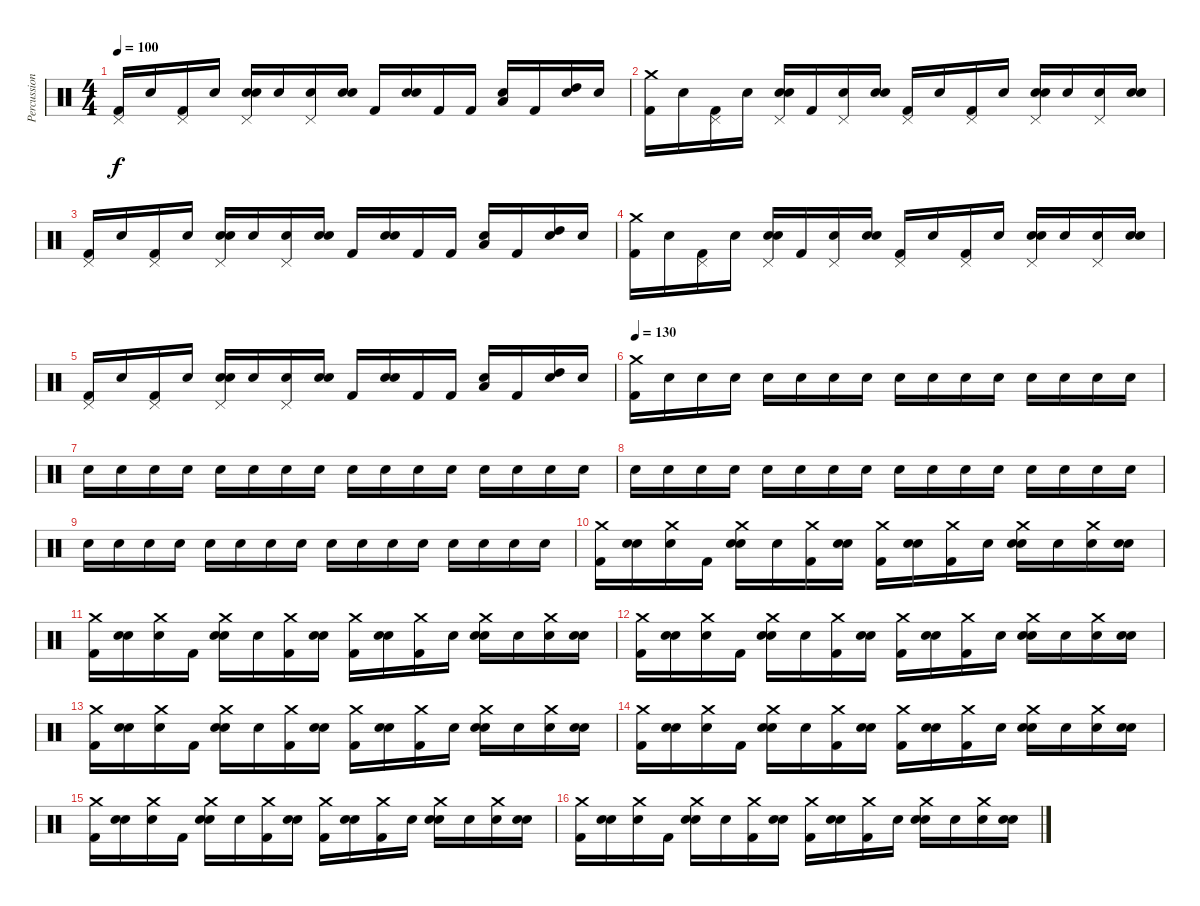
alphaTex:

\track ("Percussion" "Percussion") {instrument percussion}
\staff {score}
\articulation defaults
\ts (4 4)
\tempo 100
\clef neutral
\ks c
("Pedal Hi-Hat (hit)" "Kick (hit) 2").16{dy f} "Snare (hit)".16 ("Pedal Hi-Hat (hit)" "Kick (hit) 2").16 "Snare (hit)".16 ("Pedal Hi-Hat (hit)" "Electric Snare (hit)" "Snare (hit)").16 "Snare (hit)".16 ("Pedal Hi-Hat (hit)" "Snare (hit)").16 ("Electric Snare (hit)" "Snare (hit)").16 "Kick (hit) 2".16 ("Electric Snare (hit)" "Snare (hit)").16 "Kick (hit) 2".16 "Kick (hit) 2".16 ("Low Tom (hit)" "Snare (hit)").16 "Kick (hit) 2".16 ("High Tom (hit)" "Snare (hit)").16 "Snare (hit)".16 |
("Crash medium (hit)" "Kick (hit) 2").16 "Snare (hit)".16 ("Pedal Hi-Hat (hit)" "Kick (hit) 2").16 "Snare (hit)".16 ("Pedal Hi-Hat (hit)" "Electric Snare (hit)" "Snare (hit)").16 "Kick (hit) 2".16 ("Pedal Hi-Hat (hit)" "Snare (hit)").16 ("Electric Snare (hit)" "Snare (hit)").16 ("Pedal Hi-Hat (hit)" "Kick (hit) 2").16 "Snare (hit)".16 ("Pedal Hi-Hat (hit)" "Kick (hit) 2").16 "Snare (hit)".16 ("Pedal Hi-Hat (hit)" "Electric Snare (hit)" "Snare (hit)").16 "Snare (hit)".16 ("Pedal Hi-Hat (hit)" "Snare (hit)").16 ("Electric Snare (hit)" "Snare (hit)").16 |
("Pedal Hi-Hat (hit)" "Kick (hit) 2").16 "Snare (hit)".16 ("Pedal Hi-Hat (hit)" "Kick (hit) 2").16 "Snare (hit)".16 ("Pedal Hi-Hat (hit)" "Electric Snare (hit)" "Snare (hit)").16 "Snare (hit)".16 ("Pedal Hi-Hat (hit)" "Snare (hit)").16 ("Electric Snare (hit)" "Snare (hit)").16 "Kick (hit) 2".16 ("Electric Snare (hit)" "Snare (hit)").16 "Kick (hit) 2".16 "Kick (hit) 2".16 ("Low Tom (hit)" "Snare (hit)").16 "Kick (hit) 2".16 ("High Tom (hit)" "Snare (hit)").16 "Snare (hit)".16 |
("Crash medium (hit)" "Kick (hit) 2").16 "Snare (hit)".16 ("Pedal Hi-Hat (hit)" "Kick (hit) 2").16 "Snare (hit)".16 ("Pedal Hi-Hat (hit)" "Electric Snare (hit)" "Snare (hit)").16 "Kick (hit) 2".16 ("Pedal Hi-Hat (hit)" "Snare (hit)").16 ("Electric Snare (hit)" "Snare (hit)").16 ("Pedal Hi-Hat (hit)" "Kick (hit) 2").16 "Snare (hit)".16 ("Pedal Hi-Hat (hit)" "Kick (hit) 2").16 "Snare (hit)".16 ("Pedal Hi-Hat (hit)" "Electric Snare (hit)" "Snare (hit)").16 "Snare (hit)".16 ("Pedal Hi-Hat (hit)" "Snare (hit)").16 ("Electric Snare (hit)" "Snare (hit)").16 |
("Pedal Hi-Hat (hit)" "Kick (hit) 2").16 "Snare (hit)".16 ("Pedal Hi-Hat (hit)" "Kick (hit) 2").16 "Snare (hit)".16 ("Pedal Hi-Hat (hit)" "Electric Snare (hit)" "Snare (hit)").16 "Snare (hit)".16 ("Pedal Hi-Hat (hit)" "Snare (hit)").16 ("Electric Snare (hit)" "Snare (hit)").16 "Kick (hit) 2".16 ("Electric Snare (hit)" "Snare (hit)").16 "Kick (hit) 2".16 "Kick (hit) 2".16 ("Low Tom (hit)" "Snare (hit)").16 "Kick (hit) 2".16 ("High Tom (hit)" "Snare (hit)").16 "Snare (hit)".16 |
\tempo 130
("Crash medium (hit)" "Kick (hit) 2").16 "Snare (hit)".16 "Snare (hit)".16 "Snare (hit)".16 "Snare (hit)".16 "Snare (hit)".16 "Snare (hit)".16 "Snare (hit)".16 "Snare (hit)".16 "Snare (hit)".16 "Snare (hit)".16 "Snare (hit)".16 "Snare (hit)".16 "Snare (hit)".16 "Snare (hit)".16 "Snare (hit)".16 |
"Snare (hit)".16 "Snare (hit)".16 "Snare (hit)".16 "Snare (hit)".16 "Snare (hit)".16 "Snare (hit)".16 "Snare (hit)".16 "Snare (hit)".16 "Snare (hit)".16 "Snare (hit)".16 "Snare (hit)".16 "Snare (hit)".16 "Snare (hit)".16 "Snare (hit)".16 "Snare (hit)".16 "Snare (hit)".16 |
"Snare (hit)".16 "Snare (hit)".16 "Snare (hit)".16 "Snare (hit)".16 "Snare (hit)".16 "Snare (hit)".16 "Snare (hit)".16 "Snare (hit)".16 "Snare (hit)".16 "Snare (hit)".16 "Snare (hit)".16 "Snare (hit)".16 "Snare (hit)".16 "Snare (hit)".16 "Snare (hit)".16 "Snare (hit)".16 |
"Snare (hit)".16 "Snare (hit)".16 "Snare (hit)".16 "Snare (hit)".16 "Snare (hit)".16 "Snare (hit)".16 "Snare (hit)".16 "Snare (hit)".16 "Snare (hit)".16 "Snare (hit)".16 "Snare (hit)".16 "Snare (hit)".16 "Snare (hit)".16 "Snare (hit)".16 "Snare (hit)".16 "Snare (hit)".16 |
("Crash medium (hit)" "Kick (hit) 2").16 ("Electric Snare (hit)" "Snare (hit)").16 ("Crash medium (hit)" "Snare (hit)").16 "Kick (hit) 2".16 ("Electric Snare (hit)" "Crash medium (hit)" "Snare (hit)").16 "Snare (hit)".16 ("Crash medium (hit)" "Kick (hit) 2").16 ("Electric Snare (hit)" "Snare (hit)").16 ("Crash medium (hit)" "Kick (hit) 2").16 ("Electric Snare (hit)" "Snare (hit)").16 ("Crash medium (hit)" "Kick (hit) 2").16 "Snare (hit)".16 ("Electric Snare (hit)" "Crash medium (hit)" "Snare (hit)").16 "Snare (hit)".16 ("Crash medium (hit)" "Snare (hit)").16 ("Electric Snare (hit)" "Snare (hit)").16 |
("Crash medium (hit)" "Kick (hit) 2").16 ("Electric Snare (hit)" "Snare (hit)").16 ("Crash medium (hit)" "Snare (hit)").16 "Kick (hit) 2".16 ("Electric Snare (hit)" "Crash medium (hit)" "Snare (hit)").16 "Snare (hit)".16 ("Crash medium (hit)" "Kick (hit) 2").16 ("Electric Snare (hit)" "Snare (hit)").16 ("Crash medium (hit)" "Kick (hit) 2").16 ("Electric Snare (hit)" "Snare (hit)").16 ("Crash medium (hit)" "Kick (hit) 2").16 "Snare (hit)".16 ("Electric Snare (hit)" "Crash medium (hit)" "Snare (hit)").16 "Snare (hit)".16 ("Crash medium (hit)" "Snare (hit)").16 ("Electric Snare (hit)" "Snare (hit)").16 |
("Crash medium (hit)" "Kick (hit) 2").16 ("Electric Snare (hit)" "Snare (hit)").16 ("Crash medium (hit)" "Snare (hit)").16 "Kick (hit) 2".16 ("Electric Snare (hit)" "Crash medium (hit)" "Snare (hit)").16 "Snare (hit)".16 ("Crash medium (hit)" "Kick (hit) 2").16 ("Electric Snare (hit)" "Snare (hit)").16 ("Crash medium (hit)" "Kick (hit) 2").16 ("Electric Snare (hit)" "Snare (hit)").16 ("Crash medium (hit)" "Kick (hit) 2").16 "Snare (hit)".16 ("Electric Snare (hit)" "Crash medium (hit)" "Snare (hit)").16 "Snare (hit)".16 ("Crash medium (hit)" "Snare (hit)").16 ("Electric Snare (hit)" "Snare (hit)").16 |
("Crash medium (hit)" "Kick (hit) 2").16 ("Electric Snare (hit)" "Snare (hit)").16 ("Crash medium (hit)" "Snare (hit)").16 "Kick (hit) 2".16 ("Electric Snare (hit)" "Crash medium (hit)" "Snare (hit)").16 "Snare (hit)".16 ("Crash medium (hit)" "Kick (hit) 2").16 ("Electric Snare (hit)" "Snare (hit)").16 ("Crash medium (hit)" "Kick (hit) 2").16 ("Electric Snare (hit)" "Snare (hit)").16 ("Crash medium (hit)" "Kick (hit) 2").16 "Snare (hit)".16 ("Electric Snare (hit)" "Crash medium (hit)" "Snare (hit)").16 "Snare (hit)".16 ("Crash medium (hit)" "Snare (hit)").16 ("Electric Snare (hit)" "Snare (hit)").16 |
("Crash medium (hit)" "Kick (hit) 2").16 ("Electric Snare (hit)" "Snare (hit)").16 ("Crash medium (hit)" "Snare (hit)").16 "Kick (hit) 2".16 ("Electric Snare (hit)" "Crash medium (hit)" "Snare (hit)").16 "Snare (hit)".16 ("Crash medium (hit)" "Kick (hit) 2").16 ("Electric Snare (hit)" "Snare (hit)").16 ("Crash medium (hit)" "Kick (hit) 2").16 ("Electric Snare (hit)" "Snare (hit)").16 ("Crash medium (hit)" "Kick (hit) 2").16 "Snare (hit)".16 ("Electric Snare (hit)" "Crash medium (hit)" "Snare (hit)").16 "Snare (hit)".16 ("Crash medium (hit)" "Snare (hit)").16 ("Electric Snare (hit)" "Snare (hit)").16 |
("Crash medium (hit)" "Kick (hit) 2").16 ("Electric Snare (hit)" "Snare (hit)").16 ("Crash medium (hit)" "Snare (hit)").16 "Kick (hit) 2".16 ("Electric Snare (hit)" "Crash medium (hit)" "Snare (hit)").16 "Snare (hit)".16 ("Crash medium (hit)" "Kick (hit) 2").16 ("Electric Snare (hit)" "Snare (hit)").16 ("Crash medium (hit)" "Kick (hit) 2").16 ("Electric Snare (hit)" "Snare (hit)").16 ("Crash medium (hit)" "Kick (hit) 2").16 "Snare (hit)".16 ("Electric Snare (hit)" "Crash medium (hit)" "Snare (hit)").16 "Snare (hit)".16 ("Crash medium (hit)" "Snare (hit)").16 ("Electric Snare (hit)" "Snare (hit)").16 |
("Crash medium (hit)" "Kick (hit) 2").16 ("Electric Snare (hit)" "Snare (hit)").16 ("Crash medium (hit)" "Snare (hit)").16 "Kick (hit) 2".16 ("Electric Snare (hit)" "Crash medium (hit)" "Snare (hit)").16 "Snare (hit)".16 ("Crash medium (hit)" "Kick (hit) 2").16 ("Electric Snare (hit)" "Snare (hit)").16 ("Crash medium (hit)" "Kick (hit) 2").16 ("Electric Snare (hit)" "Snare (hit)").16 ("Crash medium (hit)" "Kick (hit) 2").16 "Snare (hit)".16 ("Electric Snare (hit)" "Crash medium (hit)" "Snare (hit)").16 "Snare (hit)".16 ("Crash medium (hit)" "Snare (hit)").16 ("Electric Snare (hit)" "Snare (hit)").16
